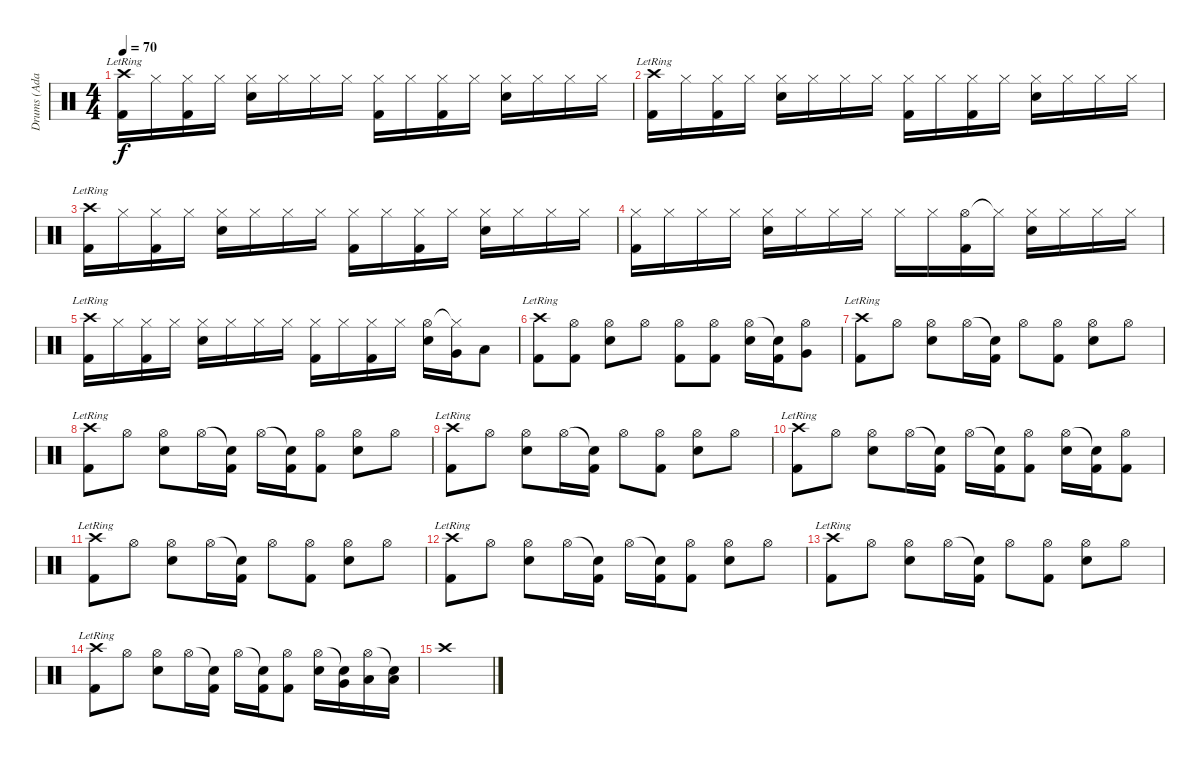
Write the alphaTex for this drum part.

\track ("Drums (Adam) " "Drums (Ada") {instrument percussion}
\staff {score}
\articulation defaults
\ts (4 4)
\tempo 70
\clef neutral
\ks c
("Crash high (hit)"{lr} "Kick (hit) 2").16{dy f} "Hi-Hat (closed)".16 ("Hi-Hat (closed)" "Kick (hit) 2").16 "Hi-Hat (closed)".16 ("Hi-Hat (closed)" "Electric Snare (hit)").16 "Hi-Hat (closed)".16 "Hi-Hat (closed)".16 "Hi-Hat (closed)".16 ("Hi-Hat (closed)" "Kick (hit) 2").16 "Hi-Hat (closed)".16 ("Hi-Hat (closed)" "Kick (hit) 2").16 "Hi-Hat (closed)".16 ("Hi-Hat (closed)" "Electric Snare (hit)").16 "Hi-Hat (closed)".16 "Hi-Hat (closed)".16 "Hi-Hat (closed)".16 |
("Crash high (hit)"{lr} "Kick (hit) 2").16 "Hi-Hat (closed)".16 ("Hi-Hat (closed)" "Kick (hit) 2").16 "Hi-Hat (closed)".16 ("Hi-Hat (closed)" "Electric Snare (hit)").16 "Hi-Hat (closed)".16 "Hi-Hat (closed)".16 "Hi-Hat (closed)".16 ("Hi-Hat (closed)" "Kick (hit) 2").16 "Hi-Hat (closed)".16 ("Hi-Hat (closed)" "Kick (hit) 2").16 "Hi-Hat (closed)".16 ("Hi-Hat (closed)" "Electric Snare (hit)").16 "Hi-Hat (closed)".16 "Hi-Hat (closed)".16 "Hi-Hat (closed)".16 |
("Crash high (hit)"{lr} "Kick (hit) 2").16 "Hi-Hat (closed)".16 ("Hi-Hat (closed)" "Kick (hit) 2").16 "Hi-Hat (closed)".16 ("Hi-Hat (closed)" "Electric Snare (hit)").16 "Hi-Hat (closed)".16 "Hi-Hat (closed)".16 "Hi-Hat (closed)".16 ("Hi-Hat (closed)" "Kick (hit) 2").16 "Hi-Hat (closed)".16 ("Hi-Hat (closed)" "Kick (hit) 2").16 "Hi-Hat (closed)".16 ("Hi-Hat (closed)" "Electric Snare (hit)").16 "Hi-Hat (closed)".16 "Hi-Hat (closed)".16 "Hi-Hat (closed)".16 |
("Hi-Hat (closed)" "Kick (hit) 2").16 "Hi-Hat (closed)".16 "Hi-Hat (closed)".16 "Hi-Hat (closed)".16 ("Hi-Hat (closed)" "Electric Snare (hit)").16 "Hi-Hat (closed)".16 "Hi-Hat (closed)".16 "Hi-Hat (closed)".16 "Hi-Hat (closed)".16 "Hi-Hat (closed)".16 ("Hi-Hat (open)" "Kick (hit) 2").16 "Hi-Hat (closed)"{t}.16 ("Hi-Hat (closed)" "Electric Snare (hit)").16 "Hi-Hat (closed)".16 "Hi-Hat (closed)".16 "Hi-Hat (closed)".16 |
("Crash high (hit)"{lr} "Kick (hit) 2").16 "Hi-Hat (closed)".16 ("Hi-Hat (closed)" "Kick (hit) 2").16 "Hi-Hat (closed)".16 ("Hi-Hat (closed)" "Electric Snare (hit)").16 "Hi-Hat (closed)".16 "Hi-Hat (closed)".16 "Hi-Hat (closed)".16 ("Hi-Hat (closed)" "Kick (hit) 2").16 "Hi-Hat (closed)".16 ("Hi-Hat (closed)" "Kick (hit) 2").16 "Hi-Hat (closed)".16 ("Hi-Hat (open)" "Electric Snare (hit)").16 ("Hi-Hat (closed)"{t} "Very Low Tom (hit)").16 "Low Floor Tom (hit)".8 |
("Crash high (hit)"{lr} "Kick (hit) 2").8 ("Hi-Hat (open)" "Kick (hit) 2").8 ("Hi-Hat (open)" "Electric Snare (hit)").8 "Hi-Hat (open)".8 ("Hi-Hat (open)" "Kick (hit) 2").8 ("Hi-Hat (open)" "Kick (hit) 2").8 ("Hi-Hat (open)" "Electric Snare (hit)").16 ("Snare (hit)"{t} "Kick (hit) 2").16 ("Hi-Hat (open)" "Very Low Tom (hit)").8 |
("Crash high (hit)"{lr} "Kick (hit) 2").8 "Hi-Hat (open)".8 ("Hi-Hat (open)" "Electric Snare (hit)").8 "Hi-Hat (open)".16 ("Snare (hit)"{t} "Kick (hit) 2").16 "Hi-Hat (open)".8 ("Hi-Hat (open)" "Kick (hit) 2").8 ("Hi-Hat (open)" "Electric Snare (hit)").8 "Hi-Hat (open)".8 |
("Crash high (hit)"{lr} "Kick (hit) 2").8 "Hi-Hat (open)".8 ("Hi-Hat (open)" "Electric Snare (hit)").8 "Hi-Hat (open)".16 ("Snare (hit)"{t} "Kick (hit) 2").16 "Hi-Hat (open)".16 ("Snare (hit)"{t} "Kick (hit) 2").16 ("Hi-Hat (open)" "Kick (hit) 2").8 ("Hi-Hat (open)" "Electric Snare (hit)").8 "Hi-Hat (open)".8 |
("Crash high (hit)"{lr} "Kick (hit) 2").8 "Hi-Hat (open)".8 ("Hi-Hat (open)" "Electric Snare (hit)").8 "Hi-Hat (open)".16 ("Snare (hit)"{t} "Kick (hit) 2").16 "Hi-Hat (open)".8 ("Hi-Hat (open)" "Kick (hit) 2").8 ("Hi-Hat (open)" "Electric Snare (hit)").8 "Hi-Hat (open)".8 |
("Crash high (hit)"{lr} "Kick (hit) 2").8 "Hi-Hat (open)".8 ("Hi-Hat (open)" "Electric Snare (hit)").8 "Hi-Hat (open)".16 ("Snare (hit)"{t} "Kick (hit) 2").16 "Hi-Hat (open)".16 ("Snare (hit)"{t} "Kick (hit) 2").16 ("Hi-Hat (open)" "Kick (hit) 2").8 ("Hi-Hat (open)" "Electric Snare (hit)").16 ("Snare (hit)"{t} "Kick (hit) 2").16 ("Hi-Hat (open)" "Kick (hit) 2").8 |
("Crash high (hit)"{lr} "Kick (hit) 2").8 "Hi-Hat (open)".8 ("Hi-Hat (open)" "Electric Snare (hit)").8 "Hi-Hat (open)".16 ("Snare (hit)"{t} "Kick (hit) 2").16 "Hi-Hat (open)".8 ("Hi-Hat (open)" "Kick (hit) 2").8 ("Hi-Hat (open)" "Electric Snare (hit)").8 "Hi-Hat (open)".8 |
("Crash high (hit)"{lr} "Kick (hit) 2").8 "Hi-Hat (open)".8 ("Hi-Hat (open)" "Electric Snare (hit)").8 "Hi-Hat (open)".16 ("Snare (hit)"{t} "Kick (hit) 2").16 "Hi-Hat (open)".16 ("Snare (hit)"{t} "Kick (hit) 2").16 ("Hi-Hat (open)" "Kick (hit) 2").8 ("Hi-Hat (open)" "Electric Snare (hit)").8 "Hi-Hat (open)".8 |
("Crash high (hit)"{lr} "Kick (hit) 2").8 "Hi-Hat (open)".8 ("Hi-Hat (open)" "Electric Snare (hit)").8 "Hi-Hat (open)".16 ("Snare (hit)"{t} "Kick (hit) 2").16 "Hi-Hat (open)".8 ("Hi-Hat (open)" "Kick (hit) 2").8 ("Hi-Hat (open)" "Electric Snare (hit)").8 "Hi-Hat (open)".8 |
("Crash high (hit)"{lr} "Kick (hit) 2").8 "Hi-Hat (open)".8 ("Hi-Hat (open)" "Electric Snare (hit)").8 "Hi-Hat (open)".16 ("Snare (hit)"{t} "Kick (hit) 2").16 "Hi-Hat (open)".16 ("Snare (hit)"{t} "Kick (hit) 2").16 ("Hi-Hat (open)" "Kick (hit) 2").8 ("Hi-Hat (open)" "Electric Snare (hit)").16 ("Snare (hit)"{t} "Very Low Tom (hit)").16 ("Hi-Hat (open)" "Low Floor Tom (hit)").16 ("Snare (hit)"{t} "Low Floor Tom (hit)").16 |
"Crash high (hit)".1
